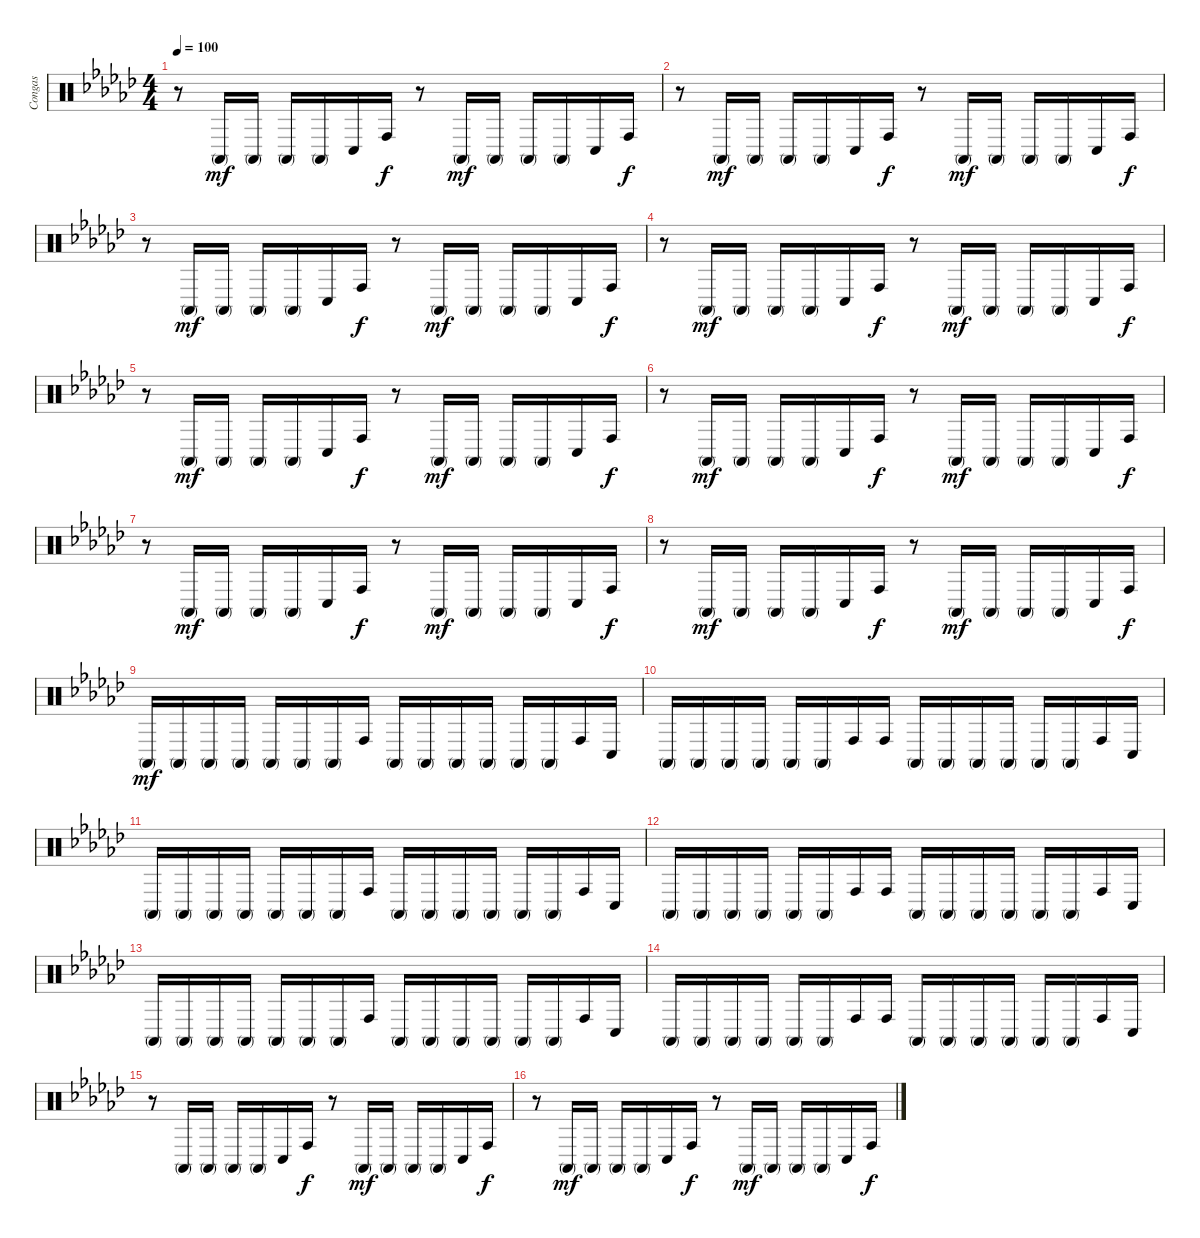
\track ("Congas" "Congas") {instrument percussion}
\staff {score}
\articulation defaults
\ts (4 4)
\tempo 100
\clef neutral
\ks ebminor
r.8{dy f} "Conga high (mute)".16{dy mf} "Conga high (mute)".16 "Conga high (mute)".16 "Conga high (mute)".16 "Conga low (hit)".16 "Conga high (hit)".16{dy f} r.8 "Conga high (mute)".16{dy mf} "Conga high (mute)".16 "Conga high (mute)".16 "Conga high (mute)".16 "Conga low (hit)".16 "Conga high (hit)".16{dy f} |
r.8 "Conga high (mute)".16{dy mf} "Conga high (mute)".16 "Conga high (mute)".16 "Conga high (mute)".16 "Conga low (hit)".16 "Conga high (hit)".16{dy f} r.8 "Conga high (mute)".16{dy mf} "Conga high (mute)".16 "Conga high (mute)".16 "Conga high (mute)".16 "Conga low (hit)".16 "Conga high (hit)".16{dy f} |
r.8 "Conga high (mute)".16{dy mf} "Conga high (mute)".16 "Conga high (mute)".16 "Conga high (mute)".16 "Conga low (hit)".16 "Conga high (hit)".16{dy f} r.8 "Conga high (mute)".16{dy mf} "Conga high (mute)".16 "Conga high (mute)".16 "Conga high (mute)".16 "Conga low (hit)".16 "Conga high (hit)".16{dy f} |
r.8 "Conga high (mute)".16{dy mf} "Conga high (mute)".16 "Conga high (mute)".16 "Conga high (mute)".16 "Conga low (hit)".16 "Conga high (hit)".16{dy f} r.8 "Conga high (mute)".16{dy mf} "Conga high (mute)".16 "Conga high (mute)".16 "Conga high (mute)".16 "Conga low (hit)".16 "Conga high (hit)".16{dy f} |
r.8 "Conga high (mute)".16{dy mf} "Conga high (mute)".16 "Conga high (mute)".16 "Conga high (mute)".16 "Conga low (hit)".16 "Conga high (hit)".16{dy f} r.8 "Conga high (mute)".16{dy mf} "Conga high (mute)".16 "Conga high (mute)".16 "Conga high (mute)".16 "Conga low (hit)".16 "Conga high (hit)".16{dy f} |
r.8 "Conga high (mute)".16{dy mf} "Conga high (mute)".16 "Conga high (mute)".16 "Conga high (mute)".16 "Conga low (hit)".16 "Conga high (hit)".16{dy f} r.8 "Conga high (mute)".16{dy mf} "Conga high (mute)".16 "Conga high (mute)".16 "Conga high (mute)".16 "Conga low (hit)".16 "Conga high (hit)".16{dy f} |
r.8 "Conga high (mute)".16{dy mf} "Conga high (mute)".16 "Conga high (mute)".16 "Conga high (mute)".16 "Conga low (hit)".16 "Conga high (hit)".16{dy f} r.8 "Conga high (mute)".16{dy mf} "Conga high (mute)".16 "Conga high (mute)".16 "Conga high (mute)".16 "Conga low (hit)".16 "Conga high (hit)".16{dy f} |
r.8 "Conga high (mute)".16{dy mf} "Conga high (mute)".16 "Conga high (mute)".16 "Conga high (mute)".16 "Conga low (hit)".16 "Conga high (hit)".16{dy f} r.8 "Conga high (mute)".16{dy mf} "Conga high (mute)".16 "Conga high (mute)".16 "Conga high (mute)".16 "Conga low (hit)".16 "Conga high (hit)".16{dy f} |
"Conga high (mute)".16{dy mf} "Conga high (mute)".16 "Conga high (mute)".16 "Conga high (mute)".16 "Conga high (mute)".16 "Conga high (mute)".16 "Conga high (mute)".16 "Conga high (hit)".16 "Conga high (mute)".16 "Conga high (mute)".16 "Conga high (mute)".16 "Conga high (mute)".16 "Conga high (mute)".16 "Conga high (mute)".16 "Conga high (hit)".16 "Conga low (hit)".16 |
"Conga high (mute)".16 "Conga high (mute)".16 "Conga high (mute)".16 "Conga high (mute)".16 "Conga high (mute)".16 "Conga high (mute)".16 "Conga high (hit)".16 "Conga high (hit)".16 "Conga high (mute)".16 "Conga high (mute)".16 "Conga high (mute)".16 "Conga high (mute)".16 "Conga high (mute)".16 "Conga high (mute)".16 "Conga high (hit)".16 "Conga low (hit)".16 |
"Conga high (mute)".16 "Conga high (mute)".16 "Conga high (mute)".16 "Conga high (mute)".16 "Conga high (mute)".16 "Conga high (mute)".16 "Conga high (mute)".16 "Conga high (hit)".16 "Conga high (mute)".16 "Conga high (mute)".16 "Conga high (mute)".16 "Conga high (mute)".16 "Conga high (mute)".16 "Conga high (mute)".16 "Conga high (hit)".16 "Conga low (hit)".16 |
"Conga high (mute)".16 "Conga high (mute)".16 "Conga high (mute)".16 "Conga high (mute)".16 "Conga high (mute)".16 "Conga high (mute)".16 "Conga high (hit)".16 "Conga high (hit)".16 "Conga high (mute)".16 "Conga high (mute)".16 "Conga high (mute)".16 "Conga high (mute)".16 "Conga high (mute)".16 "Conga high (mute)".16 "Conga high (hit)".16 "Conga low (hit)".16 |
"Conga high (mute)".16 "Conga high (mute)".16 "Conga high (mute)".16 "Conga high (mute)".16 "Conga high (mute)".16 "Conga high (mute)".16 "Conga high (mute)".16 "Conga high (hit)".16 "Conga high (mute)".16 "Conga high (mute)".16 "Conga high (mute)".16 "Conga high (mute)".16 "Conga high (mute)".16 "Conga high (mute)".16 "Conga high (hit)".16 "Conga low (hit)".16 |
"Conga high (mute)".16 "Conga high (mute)".16 "Conga high (mute)".16 "Conga high (mute)".16 "Conga high (mute)".16 "Conga high (mute)".16 "Conga high (hit)".16 "Conga high (hit)".16 "Conga high (mute)".16 "Conga high (mute)".16 "Conga high (mute)".16 "Conga high (mute)".16 "Conga high (mute)".16 "Conga high (mute)".16 "Conga high (hit)".16 "Conga low (hit)".16 |
r.8 "Conga high (mute)".16 "Conga high (mute)".16 "Conga high (mute)".16 "Conga high (mute)".16 "Conga low (hit)".16 "Conga high (hit)".16{dy f} r.8 "Conga high (mute)".16{dy mf} "Conga high (mute)".16 "Conga high (mute)".16 "Conga high (mute)".16 "Conga low (hit)".16 "Conga high (hit)".16{dy f} |
r.8 "Conga high (mute)".16{dy mf} "Conga high (mute)".16 "Conga high (mute)".16 "Conga high (mute)".16 "Conga low (hit)".16 "Conga high (hit)".16{dy f} r.8 "Conga high (mute)".16{dy mf} "Conga high (mute)".16 "Conga high (mute)".16 "Conga high (mute)".16 "Conga low (hit)".16 "Conga high (hit)".16{dy f}
